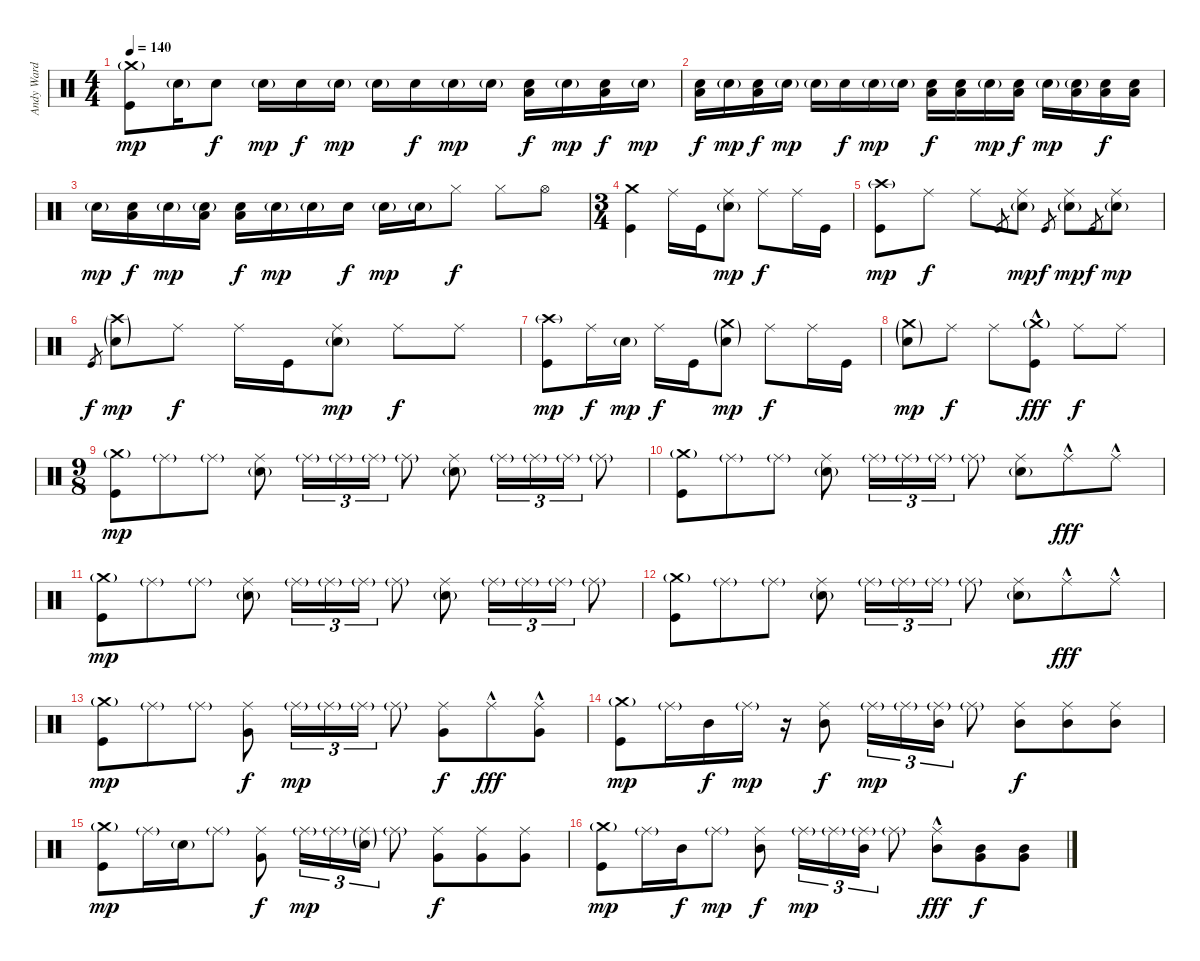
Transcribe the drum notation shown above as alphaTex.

\track ("Andy Ward (Drums)" "Andy Ward ") {instrument percussion}
\staff {score}
\articulation defaults
\ts (4 4)
\tempo 140
\clef neutral
\ks c
("Crash medium (hit)"{g} "Kick (hit)").8{dy mp} "Snare (hit) 2"{g}.16 "Snare (hit) 2".8{dy f} "Snare (hit) 2"{g}.16{dy mp} "Snare (hit) 2".16{dy f} "Snare (hit) 2"{g}.16{dy mp} "Snare (hit) 2"{g}.16 "Snare (hit) 2".16{dy f} "Snare (hit) 2"{g}.16{dy mp} "Snare (hit) 2"{g}.16 ("Snare (hit) 2" "Low Tom (hit)").16{dy f} "Snare (hit) 2"{g}.16{dy mp} ("Snare (hit) 2" "Low Tom (hit)").16{dy f} "Snare (hit) 2"{g}.16{dy mp} |
("Snare (hit) 2" "Low Tom (hit)").16{dy f} "Snare (hit) 2"{g}.16{dy mp} ("Snare (hit) 2" "Low Tom (hit)").16{dy f} "Snare (hit) 2"{g}.16{dy mp} "Snare (hit) 2"{g}.16 "Snare (hit) 2".16{dy f} "Snare (hit) 2"{g}.16{dy mp} "Snare (hit) 2"{g}.16 ("Snare (hit) 2" "Low Tom (hit)").16{dy f} ("Snare (hit) 2" "Low Tom (hit)").16 "Snare (hit) 2"{g}.16{dy mp} ("Snare (hit) 2" "Low Tom (hit)").16{dy f} "Snare (hit) 2"{g}.16{dy mp} ("Snare (hit) 2"{g} "Low Tom (hit)").16 ("Snare (hit) 2" "Low Tom (hit)").16{dy f} ("Snare (hit) 2" "Low Tom (hit)").16 |
"Snare (hit) 2"{g}.16{dy mp} ("Snare (hit) 2" "Low Tom (hit)").16{dy f} "Snare (hit) 2"{g}.16{dy mp} ("Snare (hit) 2"{g} "Low Tom (hit)").16 ("Snare (hit) 2" "Low Tom (hit)").16{dy f} "Snare (hit) 2"{g}.16{dy mp} "Snare (hit) 2"{g}.16 "Snare (hit) 2".16{dy f} "Snare (hit) 2"{g}.16{dy mp} "Snare (hit) 2"{g}.16 "Hi-Hat (closed)".8{dy f} "Hi-Hat (closed)".8 "Hi-Hat (open)".8 |
\ts (3 4)
("Crash medium (hit)" "Kick (hit)").4 "Ride (middle)".16 "Kick (hit)".16 ("Ride (middle)" "Electric Snare (hit)"{g}).8{dy mp} "Ride (middle)".8{dy f} "Ride (middle)".16 "Kick (hit)".16 |
("Crash high (hit)"{g} "Kick (hit)").8{dy mp} "Ride (middle)".8{dy f} "Ride (middle)".8 "Kick (hit)".8{gr} ("Ride (middle)" "Electric Snare (hit)"{g}).8{dy mp} "Kick (hit)".8{gr dy f} ("Ride (middle)" "Electric Snare (hit)"{g}).8{dy mp} "Kick (hit)".8{gr dy f} ("Ride (middle)" "Electric Snare (hit)"{g}).8{dy mp} |
"Kick (hit)".8{gr dy f} ("Crash high (hit)"{g} "Electric Snare (hit)"{g}).8{dy mp} "Ride (middle)".8{dy f} "Ride (middle)".16 "Kick (hit)".16 ("Ride (middle)" "Electric Snare (hit)"{g}).8{dy mp} "Ride (middle)".8{dy f} "Ride (middle)".8 |
("Crash high (hit)"{g} "Kick (hit)").8{dy mp} "Ride (middle)".16{dy f} "Electric Snare (hit)"{g}.16{dy mp} "Ride (middle)".16{dy f} "Kick (hit)".16 ("Crash medium (hit)"{g} "Electric Snare (hit)"{g}).8{dy mp} "Ride (middle)".8{dy f} "Ride (middle)".16 "Kick (hit)".16 |
("Crash medium (hit)"{g} "Electric Snare (hit)"{g}).8{dy mp} "Ride (middle)".8{dy f} "Ride (middle)".8 ("Crash medium (hit)"{g} "Kick (hit)"{hac}).8{dy fff} "Ride (middle)".8{dy f} "Ride (middle)".8 |
\ts (9 8)
("Crash medium (hit)"{g} "Kick (hit)").8{dy mp} "Ride (middle)"{g}.8 "Ride (middle)"{g}.8 ("Ride (middle)" "Snare (hit) 2"{g}).8 "Ride (middle)"{g}.16{tu (3 2)} "Ride (middle)"{g}.16{tu (3 2)} "Ride (middle)"{g}.16{tu (3 2)} "Ride (middle)"{g}.8 ("Ride (middle)" "Snare (hit) 2"{g}).8 "Ride (middle)"{g}.16{tu (3 2)} "Ride (middle)"{g}.16{tu (3 2)} "Ride (middle)"{g}.16{tu (3 2)} "Ride (middle)"{g}.8 |
("Crash medium (hit)"{g} "Kick (hit)").8 "Ride (middle)"{g}.8 "Ride (middle)"{g}.8 ("Ride (middle)" "Snare (hit) 2"{g}).8 "Ride (middle)"{g}.16{tu (3 2)} "Ride (middle)"{g}.16{tu (3 2)} "Ride (middle)"{g}.16{tu (3 2)} "Ride (middle)"{g}.8 ("Ride (middle)" "Snare (hit) 2"{g}).8 "Ride (middle)"{hac}.8{dy fff} "Ride (middle)"{hac}.8 |
("Crash medium (hit)"{g} "Kick (hit)").8{dy mp} "Ride (middle)"{g}.8 "Ride (middle)"{g}.8 ("Ride (middle)" "Snare (hit) 2"{g}).8 "Ride (middle)"{g}.16{tu (3 2)} "Ride (middle)"{g}.16{tu (3 2)} "Ride (middle)"{g}.16{tu (3 2)} "Ride (middle)"{g}.8 ("Ride (middle)" "Snare (hit) 2"{g}).8 "Ride (middle)"{g}.16{tu (3 2)} "Ride (middle)"{g}.16{tu (3 2)} "Ride (middle)"{g}.16{tu (3 2)} "Ride (middle)"{g}.8 |
("Crash medium (hit)"{g} "Kick (hit)").8 "Ride (middle)"{g}.8 "Ride (middle)"{g}.8 ("Ride (middle)" "Snare (hit) 2"{g}).8 "Ride (middle)"{g}.16{tu (3 2)} "Ride (middle)"{g}.16{tu (3 2)} "Ride (middle)"{g}.16{tu (3 2)} "Ride (middle)"{g}.8 ("Ride (middle)" "Snare (hit) 2"{g}).8 "Ride (middle)"{hac}.8{dy fff} "Ride (middle)"{hac}.8 |
("Crash medium (hit)"{g} "Kick (hit)").8{dy mp} "Ride (middle)"{g}.8 "Ride (middle)"{g}.8 ("Ride (middle)" "Very Low Tom (hit)").8{dy f} "Ride (middle)"{g}.16{tu (3 2) dy mp} "Ride (middle)"{g}.16{tu (3 2)} "Ride (middle)"{g}.16{tu (3 2)} "Ride (middle)"{g}.8 ("Ride (middle)" "Very Low Tom (hit)").8{dy f} "Ride (middle)"{hac}.8{dy fff} ("Ride (middle)"{hac} "Very Low Tom (hit)").8 |
("Crash medium (hit)"{g} "Kick (hit)").8{dy mp} "Ride (middle)"{g}.16 "Mid Tom (hit)".16{dy f} "Ride (middle)"{g}.16{dy mp} r.16 ("Ride (middle)" "Mid Tom (hit)").8{dy f} "Ride (middle)"{g}.16{tu (3 2) dy mp} "Ride (middle)"{g}.16{tu (3 2)} ("Ride (middle)"{g} "Mid Tom (hit)").16{tu (3 2)} "Ride (middle)"{g}.8 ("Ride (middle)" "Mid Tom (hit)").8{dy f} ("Ride (middle)" "Mid Tom (hit)").8 ("Ride (middle)" "Mid Tom (hit)").8 |
("Crash medium (hit)"{g} "Kick (hit)").8{dy mp} "Ride (middle)"{g}.16 "Snare (hit) 2"{g}.16 "Ride (middle)"{g}.8 ("Ride (middle)" "Very Low Tom (hit)").8{dy f} "Ride (middle)"{g}.16{tu (3 2) dy mp} "Ride (middle)"{g}.16{tu (3 2)} ("Ride (middle)"{g} "Snare (hit) 2"{g}).16{tu (3 2)} "Ride (middle)"{g}.8 ("Ride (middle)" "Very Low Tom (hit)").8{dy f} ("Ride (middle)" "Very Low Tom (hit)").8 ("Ride (middle)" "Very Low Tom (hit)").8 |
("Crash medium (hit)"{g} "Kick (hit)").8{dy mp} "Ride (middle)"{g}.16 "Mid Tom (hit)".16{dy f} "Ride (middle)"{g}.8{dy mp} ("Ride (middle)" "Mid Tom (hit)").8{dy f} "Ride (middle)"{g}.16{tu (3 2) dy mp} "Ride (middle)"{g}.16{tu (3 2)} ("Ride (middle)"{g} "Mid Tom (hit)").16{tu (3 2)} "Ride (middle)"{g}.8 ("Ride (middle)"{hac} "Mid Tom (hit)").8{dy fff} ("Mid Tom (hit)" "Very Low Tom (hit)").8{dy f} ("Mid Tom (hit)" "Very Low Tom (hit)").8
